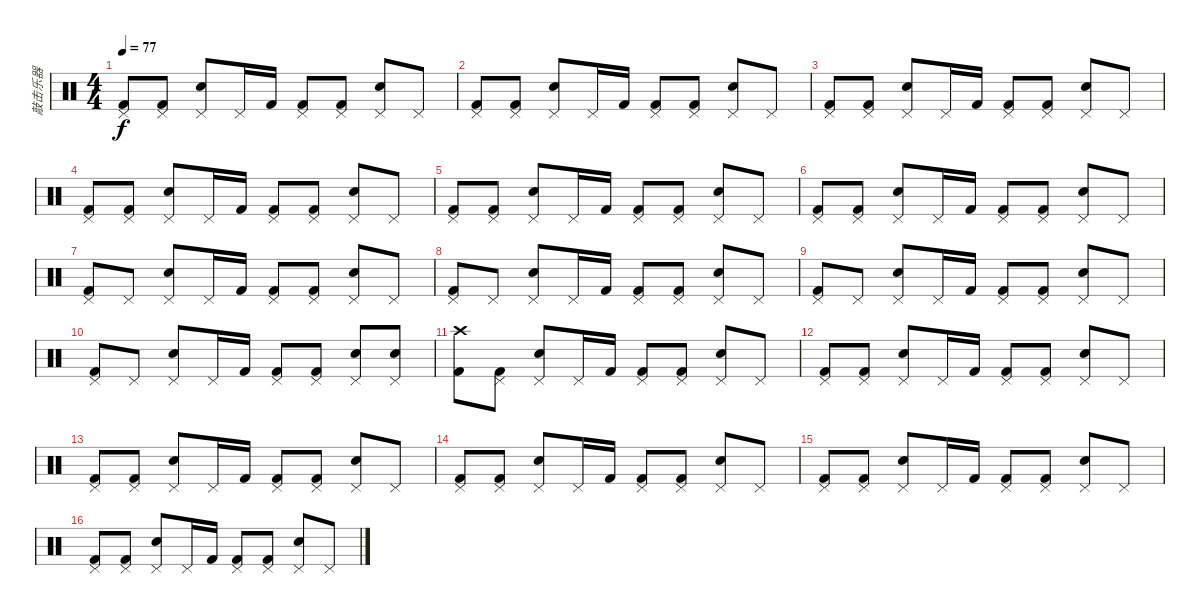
\track ("敲击乐器" "敲击乐器") {instrument percussion}
\staff {score}
\articulation defaults
\ts (4 4)
\tempo 77
\clef neutral
\ks c
("Pedal Hi-Hat (hit)" "Kick (hit) 2").8{dy f} ("Pedal Hi-Hat (hit)" "Kick (hit) 2").8 ("Pedal Hi-Hat (hit)" "Snare (hit) 2").8 "Pedal Hi-Hat (hit)".16 "Kick (hit) 2".16 ("Pedal Hi-Hat (hit)" "Kick (hit) 2").8 ("Pedal Hi-Hat (hit)" "Kick (hit) 2").8 ("Pedal Hi-Hat (hit)" "Snare (hit) 2").8 "Pedal Hi-Hat (hit)".8 |
("Pedal Hi-Hat (hit)" "Kick (hit) 2").8 ("Pedal Hi-Hat (hit)" "Kick (hit) 2").8 ("Pedal Hi-Hat (hit)" "Snare (hit) 2").8 "Pedal Hi-Hat (hit)".16 "Kick (hit) 2".16 ("Pedal Hi-Hat (hit)" "Kick (hit) 2").8 ("Pedal Hi-Hat (hit)" "Kick (hit) 2").8 ("Pedal Hi-Hat (hit)" "Snare (hit) 2").8 "Pedal Hi-Hat (hit)".8 |
("Pedal Hi-Hat (hit)" "Kick (hit) 2").8 ("Pedal Hi-Hat (hit)" "Kick (hit) 2").8 ("Pedal Hi-Hat (hit)" "Snare (hit) 2").8 "Pedal Hi-Hat (hit)".16 "Kick (hit) 2".16 ("Pedal Hi-Hat (hit)" "Kick (hit) 2").8 ("Pedal Hi-Hat (hit)" "Kick (hit) 2").8 ("Pedal Hi-Hat (hit)" "Snare (hit) 2").8 "Pedal Hi-Hat (hit)".8 |
("Pedal Hi-Hat (hit)" "Kick (hit) 2").8 ("Pedal Hi-Hat (hit)" "Kick (hit) 2").8 ("Pedal Hi-Hat (hit)" "Snare (hit) 2").8 "Pedal Hi-Hat (hit)".16 "Kick (hit) 2".16 ("Pedal Hi-Hat (hit)" "Kick (hit) 2").8 ("Pedal Hi-Hat (hit)" "Kick (hit) 2").8 ("Pedal Hi-Hat (hit)" "Snare (hit) 2").8 "Pedal Hi-Hat (hit)".8 |
("Pedal Hi-Hat (hit)" "Kick (hit) 2").8 ("Pedal Hi-Hat (hit)" "Kick (hit) 2").8 ("Pedal Hi-Hat (hit)" "Snare (hit) 2").8 "Pedal Hi-Hat (hit)".16 "Kick (hit) 2".16 ("Pedal Hi-Hat (hit)" "Kick (hit) 2").8 ("Pedal Hi-Hat (hit)" "Kick (hit) 2").8 ("Pedal Hi-Hat (hit)" "Snare (hit) 2").8 "Pedal Hi-Hat (hit)".8 |
("Pedal Hi-Hat (hit)" "Kick (hit) 2").8 ("Pedal Hi-Hat (hit)" "Kick (hit) 2").8 ("Pedal Hi-Hat (hit)" "Snare (hit) 2").8 "Pedal Hi-Hat (hit)".16 "Kick (hit) 2".16 ("Pedal Hi-Hat (hit)" "Kick (hit) 2").8 ("Pedal Hi-Hat (hit)" "Kick (hit) 2").8 ("Pedal Hi-Hat (hit)" "Snare (hit) 2").8 "Pedal Hi-Hat (hit)".8 |
("Pedal Hi-Hat (hit)" "Kick (hit) 2").8 "Pedal Hi-Hat (hit)".8 ("Pedal Hi-Hat (hit)" "Snare (hit) 2").8 "Pedal Hi-Hat (hit)".16 "Kick (hit) 2".16 ("Pedal Hi-Hat (hit)" "Kick (hit) 2").8 ("Pedal Hi-Hat (hit)" "Kick (hit) 2").8 ("Pedal Hi-Hat (hit)" "Snare (hit) 2").8 "Pedal Hi-Hat (hit)".8 |
("Pedal Hi-Hat (hit)" "Kick (hit) 2").8 "Pedal Hi-Hat (hit)".8 ("Pedal Hi-Hat (hit)" "Snare (hit) 2").8 "Pedal Hi-Hat (hit)".16 "Kick (hit) 2".16 ("Pedal Hi-Hat (hit)" "Kick (hit) 2").8 ("Pedal Hi-Hat (hit)" "Kick (hit) 2").8 ("Pedal Hi-Hat (hit)" "Snare (hit) 2").8 "Pedal Hi-Hat (hit)".8 |
("Pedal Hi-Hat (hit)" "Kick (hit) 2").8 "Pedal Hi-Hat (hit)".8 ("Pedal Hi-Hat (hit)" "Snare (hit) 2").8 "Pedal Hi-Hat (hit)".16 "Kick (hit) 2".16 ("Pedal Hi-Hat (hit)" "Kick (hit) 2").8 ("Pedal Hi-Hat (hit)" "Kick (hit) 2").8 ("Pedal Hi-Hat (hit)" "Snare (hit) 2").8 "Pedal Hi-Hat (hit)".8 |
("Pedal Hi-Hat (hit)" "Kick (hit) 2").8 "Pedal Hi-Hat (hit)".8 ("Pedal Hi-Hat (hit)" "Snare (hit) 2").8 "Pedal Hi-Hat (hit)".16 "Kick (hit) 2".16 ("Pedal Hi-Hat (hit)" "Kick (hit) 2").8 ("Pedal Hi-Hat (hit)" "Kick (hit) 2").8 ("Pedal Hi-Hat (hit)" "Snare (hit) 2").8 ("Pedal Hi-Hat (hit)" "Snare (hit) 2").8 |
("Crash high (hit)" "Kick (hit) 2").8 ("Pedal Hi-Hat (hit)" "Kick (hit) 2").8 ("Pedal Hi-Hat (hit)" "Snare (hit) 2").8 "Pedal Hi-Hat (hit)".16 "Kick (hit) 2".16 ("Pedal Hi-Hat (hit)" "Kick (hit) 2").8 ("Pedal Hi-Hat (hit)" "Kick (hit) 2").8 ("Pedal Hi-Hat (hit)" "Snare (hit) 2").8 "Pedal Hi-Hat (hit)".8 |
("Pedal Hi-Hat (hit)" "Kick (hit) 2").8 ("Pedal Hi-Hat (hit)" "Kick (hit) 2").8 ("Pedal Hi-Hat (hit)" "Snare (hit) 2").8 "Pedal Hi-Hat (hit)".16 "Kick (hit) 2".16 ("Pedal Hi-Hat (hit)" "Kick (hit) 2").8 ("Pedal Hi-Hat (hit)" "Kick (hit) 2").8 ("Pedal Hi-Hat (hit)" "Snare (hit) 2").8 "Pedal Hi-Hat (hit)".8 |
("Pedal Hi-Hat (hit)" "Kick (hit) 2").8 ("Pedal Hi-Hat (hit)" "Kick (hit) 2").8 ("Pedal Hi-Hat (hit)" "Snare (hit) 2").8 "Pedal Hi-Hat (hit)".16 "Kick (hit) 2".16 ("Pedal Hi-Hat (hit)" "Kick (hit) 2").8 ("Pedal Hi-Hat (hit)" "Kick (hit) 2").8 ("Pedal Hi-Hat (hit)" "Snare (hit) 2").8 "Pedal Hi-Hat (hit)".8 |
("Pedal Hi-Hat (hit)" "Kick (hit) 2").8 ("Pedal Hi-Hat (hit)" "Kick (hit) 2").8 ("Pedal Hi-Hat (hit)" "Snare (hit) 2").8 "Pedal Hi-Hat (hit)".16 "Kick (hit) 2".16 ("Pedal Hi-Hat (hit)" "Kick (hit) 2").8 ("Pedal Hi-Hat (hit)" "Kick (hit) 2").8 ("Pedal Hi-Hat (hit)" "Snare (hit) 2").8 "Pedal Hi-Hat (hit)".8 |
("Pedal Hi-Hat (hit)" "Kick (hit) 2").8 ("Pedal Hi-Hat (hit)" "Kick (hit) 2").8 ("Pedal Hi-Hat (hit)" "Snare (hit) 2").8 "Pedal Hi-Hat (hit)".16 "Kick (hit) 2".16 ("Pedal Hi-Hat (hit)" "Kick (hit) 2").8 ("Pedal Hi-Hat (hit)" "Kick (hit) 2").8 ("Pedal Hi-Hat (hit)" "Snare (hit) 2").8 "Pedal Hi-Hat (hit)".8 |
("Pedal Hi-Hat (hit)" "Kick (hit) 2").8 ("Pedal Hi-Hat (hit)" "Kick (hit) 2").8 ("Pedal Hi-Hat (hit)" "Snare (hit) 2").8 "Pedal Hi-Hat (hit)".16 "Kick (hit) 2".16 ("Pedal Hi-Hat (hit)" "Kick (hit) 2").8 ("Pedal Hi-Hat (hit)" "Kick (hit) 2").8 ("Pedal Hi-Hat (hit)" "Snare (hit) 2").8 "Pedal Hi-Hat (hit)".8
